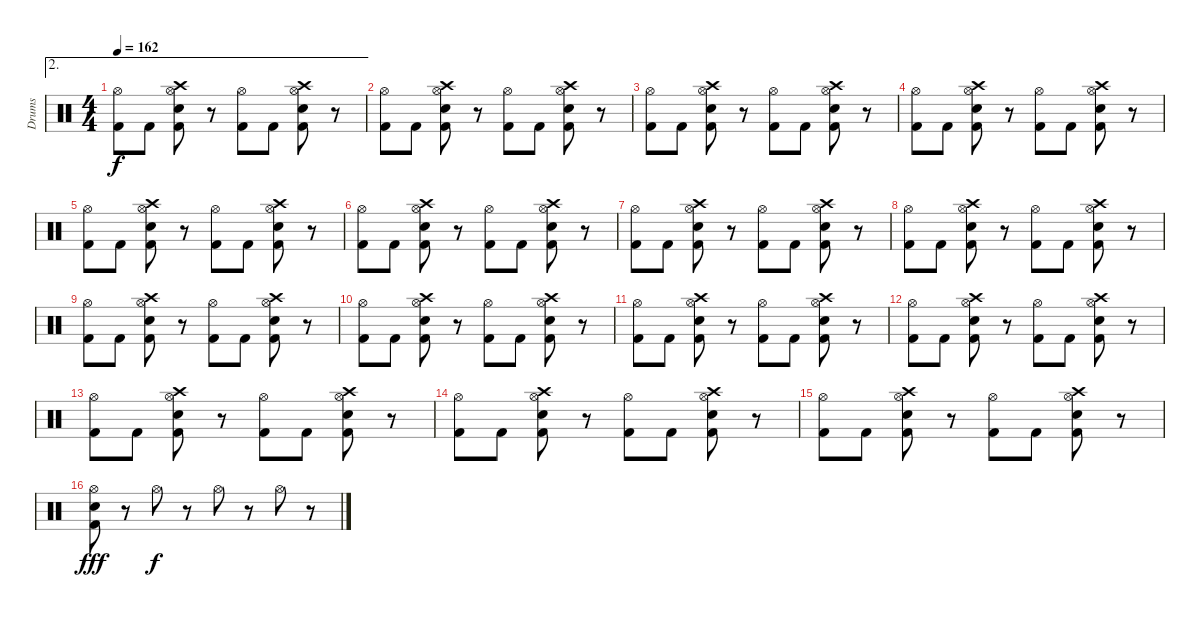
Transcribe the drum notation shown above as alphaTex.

\track ("Drums" "Drums") {instrument percussion}
\staff {score}
\articulation defaults
\ae 2
\ts (4 4)
\tempo 162
\clef neutral
\ks c
("Hi-Hat (open)" "Kick (hit) 2").8{dy f} "Kick (hit) 2".8 ("Hi-Hat (open)" "Crash high (hit)" "Snare (hit) 2" "Kick (hit) 2").8 r.8 ("Hi-Hat (open)" "Kick (hit) 2").8 "Kick (hit) 2".8 ("Hi-Hat (open)" "Crash high (hit)" "Snare (hit) 2" "Kick (hit) 2").8 r.8 |
("Hi-Hat (open)" "Kick (hit) 2").8 "Kick (hit) 2".8 ("Hi-Hat (open)" "Crash high (hit)" "Snare (hit) 2" "Kick (hit) 2").8 r.8 ("Hi-Hat (open)" "Kick (hit) 2").8 "Kick (hit) 2".8 ("Hi-Hat (open)" "Crash high (hit)" "Snare (hit) 2" "Kick (hit) 2").8 r.8 |
("Hi-Hat (open)" "Kick (hit) 2").8 "Kick (hit) 2".8 ("Hi-Hat (open)" "Crash high (hit)" "Snare (hit) 2" "Kick (hit) 2").8 r.8 ("Hi-Hat (open)" "Kick (hit) 2").8 "Kick (hit) 2".8 ("Hi-Hat (open)" "Crash high (hit)" "Snare (hit) 2" "Kick (hit) 2").8 r.8 |
("Hi-Hat (open)" "Kick (hit) 2").8 "Kick (hit) 2".8 ("Hi-Hat (open)" "Crash high (hit)" "Snare (hit) 2" "Kick (hit) 2").8 r.8 ("Hi-Hat (open)" "Kick (hit) 2").8 "Kick (hit) 2".8 ("Hi-Hat (open)" "Crash high (hit)" "Snare (hit) 2" "Kick (hit) 2").8 r.8 |
("Hi-Hat (open)" "Kick (hit) 2").8 "Kick (hit) 2".8 ("Hi-Hat (open)" "Crash high (hit)" "Snare (hit) 2" "Kick (hit) 2").8 r.8 ("Hi-Hat (open)" "Kick (hit) 2").8 "Kick (hit) 2".8 ("Hi-Hat (open)" "Crash high (hit)" "Snare (hit) 2" "Kick (hit) 2").8 r.8 |
("Hi-Hat (open)" "Kick (hit) 2").8 "Kick (hit) 2".8 ("Hi-Hat (open)" "Crash high (hit)" "Snare (hit) 2" "Kick (hit) 2").8 r.8 ("Hi-Hat (open)" "Kick (hit) 2").8 "Kick (hit) 2".8 ("Hi-Hat (open)" "Crash high (hit)" "Snare (hit) 2" "Kick (hit) 2").8 r.8 |
("Hi-Hat (open)" "Kick (hit) 2").8 "Kick (hit) 2".8 ("Hi-Hat (open)" "Crash high (hit)" "Snare (hit) 2" "Kick (hit) 2").8 r.8 ("Hi-Hat (open)" "Kick (hit) 2").8 "Kick (hit) 2".8 ("Hi-Hat (open)" "Crash high (hit)" "Snare (hit) 2" "Kick (hit) 2").8 r.8 |
("Hi-Hat (open)" "Kick (hit) 2").8 "Kick (hit) 2".8 ("Hi-Hat (open)" "Crash high (hit)" "Snare (hit) 2" "Kick (hit) 2").8 r.8 ("Hi-Hat (open)" "Kick (hit) 2").8 "Kick (hit) 2".8 ("Hi-Hat (open)" "Crash high (hit)" "Snare (hit) 2" "Kick (hit) 2").8 r.8 |
("Hi-Hat (open)" "Kick (hit) 2").8 "Kick (hit) 2".8 ("Hi-Hat (open)" "Crash high (hit)" "Snare (hit) 2" "Kick (hit) 2").8 r.8 ("Hi-Hat (open)" "Kick (hit) 2").8 "Kick (hit) 2".8 ("Hi-Hat (open)" "Crash high (hit)" "Snare (hit) 2" "Kick (hit) 2").8 r.8 |
("Hi-Hat (open)" "Kick (hit) 2").8 "Kick (hit) 2".8 ("Hi-Hat (open)" "Crash high (hit)" "Snare (hit) 2" "Kick (hit) 2").8 r.8 ("Hi-Hat (open)" "Kick (hit) 2").8 "Kick (hit) 2".8 ("Hi-Hat (open)" "Crash high (hit)" "Snare (hit) 2" "Kick (hit) 2").8 r.8 |
("Hi-Hat (open)" "Kick (hit) 2").8 "Kick (hit) 2".8 ("Hi-Hat (open)" "Crash high (hit)" "Snare (hit) 2" "Kick (hit) 2").8 r.8 ("Hi-Hat (open)" "Kick (hit) 2").8 "Kick (hit) 2".8 ("Hi-Hat (open)" "Crash high (hit)" "Snare (hit) 2" "Kick (hit) 2").8 r.8 |
("Hi-Hat (open)" "Kick (hit) 2").8 "Kick (hit) 2".8 ("Hi-Hat (open)" "Crash high (hit)" "Snare (hit) 2" "Kick (hit) 2").8 r.8 ("Hi-Hat (open)" "Kick (hit) 2").8 "Kick (hit) 2".8 ("Hi-Hat (open)" "Crash high (hit)" "Snare (hit) 2" "Kick (hit) 2").8 r.8 |
("Hi-Hat (open)" "Kick (hit) 2").8 "Kick (hit) 2".8 ("Hi-Hat (open)" "Crash high (hit)" "Snare (hit) 2" "Kick (hit) 2").8 r.8 ("Hi-Hat (open)" "Kick (hit) 2").8 "Kick (hit) 2".8 ("Hi-Hat (open)" "Crash high (hit)" "Snare (hit) 2" "Kick (hit) 2").8 r.8 |
("Hi-Hat (open)" "Kick (hit) 2").8 "Kick (hit) 2".8 ("Hi-Hat (open)" "Crash high (hit)" "Snare (hit) 2" "Kick (hit) 2").8 r.8 ("Hi-Hat (open)" "Kick (hit) 2").8 "Kick (hit) 2".8 ("Hi-Hat (open)" "Crash high (hit)" "Snare (hit) 2" "Kick (hit) 2").8 r.8 |
("Hi-Hat (open)" "Kick (hit) 2").8 "Kick (hit) 2".8 ("Hi-Hat (open)" "Crash high (hit)" "Snare (hit) 2" "Kick (hit) 2").8 r.8 ("Hi-Hat (open)" "Kick (hit) 2").8 "Kick (hit) 2".8 ("Hi-Hat (open)" "Crash high (hit)" "Snare (hit) 2" "Kick (hit) 2").8 r.8 |
("Hi-Hat (open)" "Snare (hit) 2" "Kick (hit) 2").8{dy fff} r.8 "Hi-Hat (open)".8{dy f} r.8 "Hi-Hat (open)".8 r.8 "Hi-Hat (open)".8 r.8
